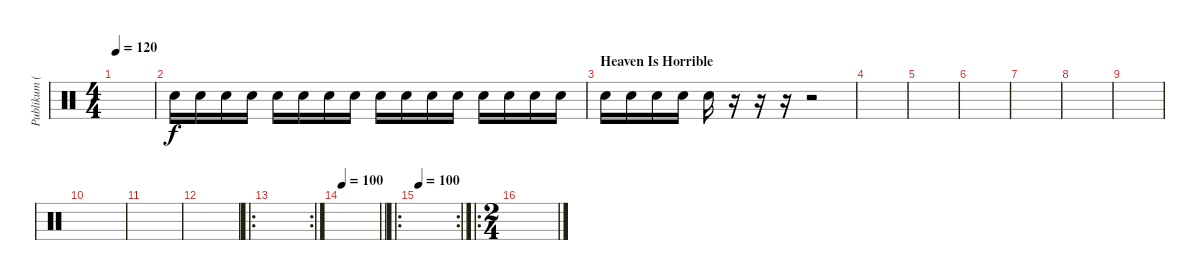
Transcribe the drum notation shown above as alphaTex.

\track ("Publikum (klapper)" "Publikum (") {instrument percussion}
\staff {score}
\articulation defaults
\ts (4 4)
\tempo 120
\clef neutral
\ks c
|
"Hand Clap (hit)".16 "Hand Clap (hit)".16 "Hand Clap (hit)".16 "Hand Clap (hit)".16 "Hand Clap (hit)".16 "Hand Clap (hit)".16 "Hand Clap (hit)".16 "Hand Clap (hit)".16 "Hand Clap (hit)".16 "Hand Clap (hit)".16 "Hand Clap (hit)".16 "Hand Clap (hit)".16 "Hand Clap (hit)".16 "Hand Clap (hit)".16 "Hand Clap (hit)".16 "Hand Clap (hit)".16 |
\section ("" "Heaven Is Horrible")
"Hand Clap (hit)".16 "Hand Clap (hit)".16 "Hand Clap (hit)".16 "Hand Clap (hit)".16 "Hand Clap (hit)".16 r.16 r.16 r.16 r.2 |
|
|
|
|
|
|
|
|
|
\ro
\rc 2
|
\tempo 100
\barLineRight lightlight
|
\ro
\rc 2
\tempo 100
|
\ro
\ts (2 4)
